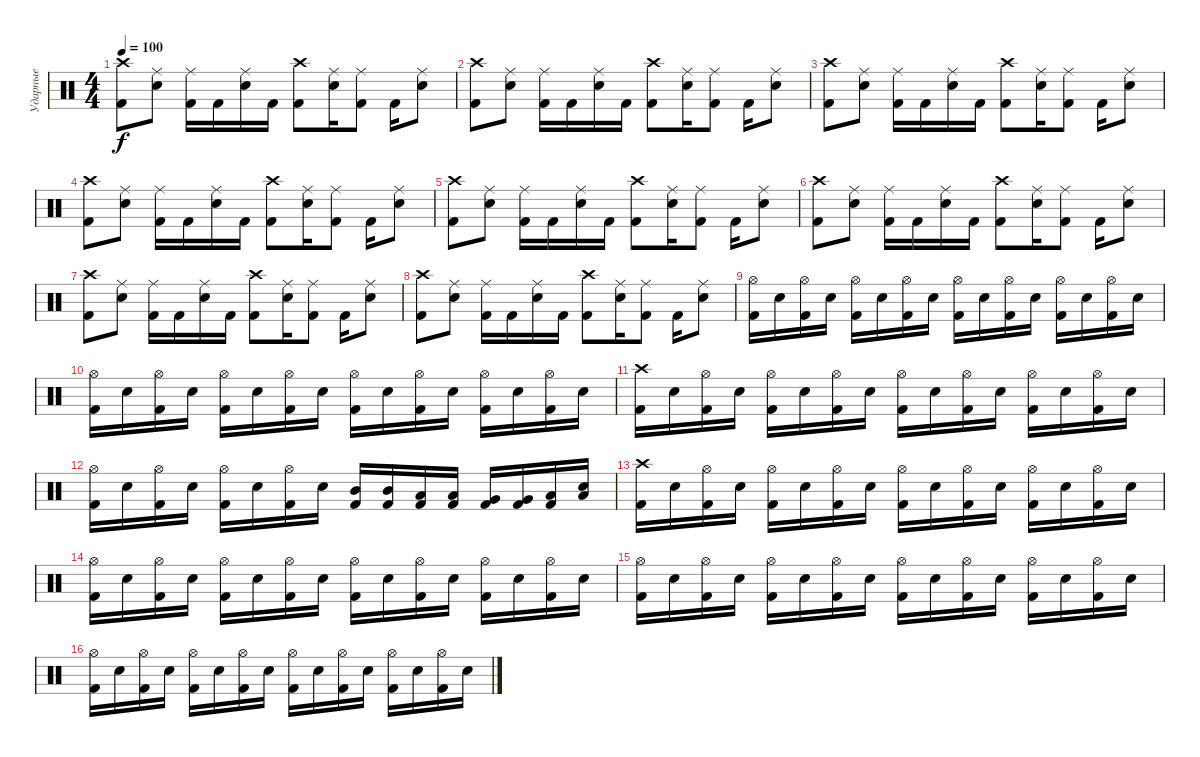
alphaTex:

\track ("Ударные" "Ударные") {instrument percussion}
\staff {score}
\articulation defaults
\ts (4 4)
\tempo 100
\clef neutral
\ks c
("Crash high (hit)" "Kick (hit) 2").8{dy f} ("Ride (middle)" "Snare (hit) 2").8 ("Ride (middle)" "Kick (hit) 2").16 "Kick (hit) 2".16 ("Ride (middle)" "Snare (hit) 2").16 "Kick (hit) 2".16 ("Crash high (hit)" "Kick (hit) 2").8 ("Ride (middle)" "Snare (hit) 2").16 ("Ride (middle)" "Kick (hit) 2").8 "Kick (hit) 2".16 ("Ride (middle)" "Snare (hit) 2").8 |
("Crash high (hit)" "Kick (hit) 2").8 ("Ride (middle)" "Snare (hit) 2").8 ("Ride (middle)" "Kick (hit) 2").16 "Kick (hit) 2".16 ("Ride (middle)" "Snare (hit) 2").16 "Kick (hit) 2".16 ("Crash high (hit)" "Kick (hit) 2").8 ("Ride (middle)" "Snare (hit) 2").16 ("Ride (middle)" "Kick (hit) 2").8 "Kick (hit) 2".16 ("Ride (middle)" "Snare (hit) 2").8 |
("Crash high (hit)" "Kick (hit) 2").8 ("Ride (middle)" "Snare (hit) 2").8 ("Ride (middle)" "Kick (hit) 2").16 "Kick (hit) 2".16 ("Ride (middle)" "Snare (hit) 2").16 "Kick (hit) 2".16 ("Crash high (hit)" "Kick (hit) 2").8 ("Ride (middle)" "Snare (hit) 2").16 ("Ride (middle)" "Kick (hit) 2").8 "Kick (hit) 2".16 ("Ride (middle)" "Snare (hit) 2").8 |
("Crash high (hit)" "Kick (hit) 2").8 ("Ride (middle)" "Snare (hit) 2").8 ("Ride (middle)" "Kick (hit) 2").16 "Kick (hit) 2".16 ("Ride (middle)" "Snare (hit) 2").16 "Kick (hit) 2".16 ("Crash high (hit)" "Kick (hit) 2").8 ("Ride (middle)" "Snare (hit) 2").16 ("Ride (middle)" "Kick (hit) 2").8 "Kick (hit) 2".16 ("Ride (middle)" "Snare (hit) 2").8 |
("Crash high (hit)" "Kick (hit) 2").8 ("Ride (middle)" "Snare (hit) 2").8 ("Ride (middle)" "Kick (hit) 2").16 "Kick (hit) 2".16 ("Ride (middle)" "Snare (hit) 2").16 "Kick (hit) 2".16 ("Crash high (hit)" "Kick (hit) 2").8 ("Ride (middle)" "Snare (hit) 2").16 ("Ride (middle)" "Kick (hit) 2").8 "Kick (hit) 2".16 ("Ride (middle)" "Snare (hit) 2").8 |
("Crash high (hit)" "Kick (hit) 2").8 ("Ride (middle)" "Snare (hit) 2").8 ("Ride (middle)" "Kick (hit) 2").16 "Kick (hit) 2".16 ("Ride (middle)" "Snare (hit) 2").16 "Kick (hit) 2".16 ("Crash high (hit)" "Kick (hit) 2").8 ("Ride (middle)" "Snare (hit) 2").16 ("Ride (middle)" "Kick (hit) 2").8 "Kick (hit) 2".16 ("Ride (middle)" "Snare (hit) 2").8 |
("Crash high (hit)" "Kick (hit) 2").8 ("Ride (middle)" "Snare (hit) 2").8 ("Ride (middle)" "Kick (hit) 2").16 "Kick (hit) 2".16 ("Ride (middle)" "Snare (hit) 2").16 "Kick (hit) 2".16 ("Crash high (hit)" "Kick (hit) 2").8 ("Ride (middle)" "Snare (hit) 2").16 ("Ride (middle)" "Kick (hit) 2").8 "Kick (hit) 2".16 ("Ride (middle)" "Snare (hit) 2").8 |
("Crash high (hit)" "Kick (hit) 2").8 ("Ride (middle)" "Snare (hit) 2").8 ("Ride (middle)" "Kick (hit) 2").16 "Kick (hit) 2".16 ("Ride (middle)" "Snare (hit) 2").16 "Kick (hit) 2".16 ("Crash high (hit)" "Kick (hit) 2").8 ("Ride (middle)" "Snare (hit) 2").16 ("Ride (middle)" "Kick (hit) 2").8 "Kick (hit) 2".16 ("Ride (middle)" "Snare (hit) 2").8 |
("Hi-Hat (open)" "Kick (hit) 2").16 "Snare (hit) 2".16 ("Hi-Hat (open)" "Kick (hit) 2").16 "Snare (hit) 2".16 ("Hi-Hat (open)" "Kick (hit) 2").16 "Snare (hit) 2".16 ("Hi-Hat (open)" "Kick (hit) 2").16 "Snare (hit) 2".16 ("Hi-Hat (open)" "Kick (hit) 2").16 "Snare (hit) 2".16 ("Hi-Hat (open)" "Kick (hit) 2").16 "Snare (hit) 2".16 ("Hi-Hat (open)" "Kick (hit) 2").16 "Snare (hit) 2".16 ("Hi-Hat (open)" "Kick (hit) 2").16 "Snare (hit) 2".16 |
("Hi-Hat (open)" "Kick (hit) 2").16 "Snare (hit) 2".16 ("Hi-Hat (open)" "Kick (hit) 2").16 "Snare (hit) 2".16 ("Hi-Hat (open)" "Kick (hit) 2").16 "Snare (hit) 2".16 ("Hi-Hat (open)" "Kick (hit) 2").16 "Snare (hit) 2".16 ("Hi-Hat (open)" "Kick (hit) 2").16 "Snare (hit) 2".16 ("Hi-Hat (open)" "Kick (hit) 2").16 "Snare (hit) 2".16 ("Hi-Hat (open)" "Kick (hit) 2").16 "Snare (hit) 2".16 ("Hi-Hat (open)" "Kick (hit) 2").16 "Snare (hit) 2".16 |
("Crash high (hit)" "Kick (hit) 2").16 "Snare (hit) 2".16 ("Hi-Hat (open)" "Kick (hit) 2").16 "Snare (hit) 2".16 ("Hi-Hat (open)" "Kick (hit) 2").16 "Snare (hit) 2".16 ("Hi-Hat (open)" "Kick (hit) 2").16 "Snare (hit) 2".16 ("Hi-Hat (open)" "Kick (hit) 2").16 "Snare (hit) 2".16 ("Hi-Hat (open)" "Kick (hit) 2").16 "Snare (hit) 2".16 ("Hi-Hat (open)" "Kick (hit) 2").16 "Snare (hit) 2".16 ("Hi-Hat (open)" "Kick (hit) 2").16 "Snare (hit) 2".16 |
("Hi-Hat (open)" "Kick (hit) 2").16 "Snare (hit) 2".16 ("Hi-Hat (open)" "Kick (hit) 2").16 "Snare (hit) 2".16 ("Hi-Hat (open)" "Kick (hit) 2").16 "Snare (hit) 2".16 ("Hi-Hat (open)" "Kick (hit) 2").16 "Snare (hit) 2".16 ("Mid Tom (hit)" "Kick (hit) 2").16 ("Mid Tom (hit)" "Kick (hit) 2").16 ("Low Tom (hit)" "Kick (hit) 2").16 ("Low Tom (hit)" "Kick (hit) 2").16 ("Very Low Tom (hit)" "Kick (hit) 2").16 ("Very Low Tom (hit)" "Kick (hit) 2").16 ("Low Floor Tom (hit)" "Kick (hit) 2").16 ("Low Floor Tom (hit)" "Snare (hit)").16 |
("Crash high (hit)" "Kick (hit) 2").16 "Snare (hit) 2".16 ("Hi-Hat (open)" "Kick (hit) 2").16 "Snare (hit) 2".16 ("Hi-Hat (open)" "Kick (hit) 2").16 "Snare (hit) 2".16 ("Hi-Hat (open)" "Kick (hit) 2").16 "Snare (hit) 2".16 ("Hi-Hat (open)" "Kick (hit) 2").16 "Snare (hit) 2".16 ("Hi-Hat (open)" "Kick (hit) 2").16 "Snare (hit) 2".16 ("Hi-Hat (open)" "Kick (hit) 2").16 "Snare (hit) 2".16 ("Hi-Hat (open)" "Kick (hit) 2").16 "Snare (hit) 2".16 |
("Hi-Hat (open)" "Kick (hit) 2").16 "Snare (hit) 2".16 ("Hi-Hat (open)" "Kick (hit) 2").16 "Snare (hit) 2".16 ("Hi-Hat (open)" "Kick (hit) 2").16 "Snare (hit) 2".16 ("Hi-Hat (open)" "Kick (hit) 2").16 "Snare (hit) 2".16 ("Hi-Hat (open)" "Kick (hit) 2").16 "Snare (hit) 2".16 ("Hi-Hat (open)" "Kick (hit) 2").16 "Snare (hit) 2".16 ("Hi-Hat (open)" "Kick (hit) 2").16 "Snare (hit) 2".16 ("Hi-Hat (open)" "Kick (hit) 2").16 "Snare (hit) 2".16 |
("Hi-Hat (open)" "Kick (hit) 2").16 "Snare (hit) 2".16 ("Hi-Hat (open)" "Kick (hit) 2").16 "Snare (hit) 2".16 ("Hi-Hat (open)" "Kick (hit) 2").16 "Snare (hit) 2".16 ("Hi-Hat (open)" "Kick (hit) 2").16 "Snare (hit) 2".16 ("Hi-Hat (open)" "Kick (hit) 2").16 "Snare (hit) 2".16 ("Hi-Hat (open)" "Kick (hit) 2").16 "Snare (hit) 2".16 ("Hi-Hat (open)" "Kick (hit) 2").16 "Snare (hit) 2".16 ("Hi-Hat (open)" "Kick (hit) 2").16 "Snare (hit) 2".16 |
("Hi-Hat (open)" "Kick (hit) 2").16 "Snare (hit) 2".16 ("Hi-Hat (open)" "Kick (hit) 2").16 "Snare (hit) 2".16 ("Hi-Hat (open)" "Kick (hit) 2").16 "Snare (hit) 2".16 ("Hi-Hat (open)" "Kick (hit) 2").16 "Snare (hit) 2".16 ("Hi-Hat (open)" "Kick (hit) 2").16 "Snare (hit) 2".16 ("Hi-Hat (open)" "Kick (hit) 2").16 "Snare (hit) 2".16 ("Hi-Hat (open)" "Kick (hit) 2").16 "Snare (hit) 2".16 ("Hi-Hat (open)" "Kick (hit) 2").16 "Snare (hit) 2".16
